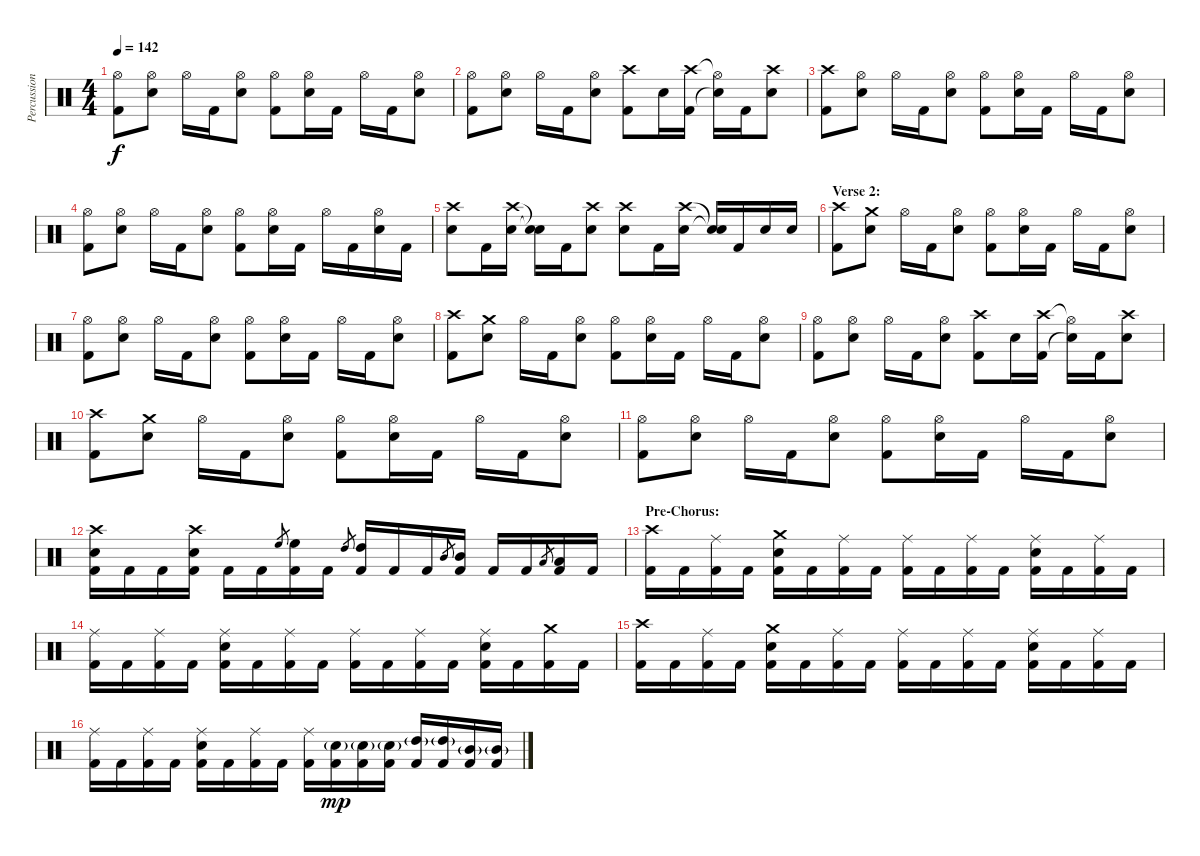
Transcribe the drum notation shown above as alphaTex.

\track ("Percussion" "Percussion") {instrument percussion}
\staff {score}
\articulation defaults
\ts (4 4)
\tempo 142
\clef neutral
\ks c
("Hi-Hat (open)" "Kick (hit) 2").8{dy f} ("Hi-Hat (open)" "Snare (hit) 2").8 "Hi-Hat (open)".16 "Kick (hit) 2".16 ("Hi-Hat (open)" "Snare (hit) 2").8 ("Hi-Hat (open)" "Kick (hit) 2").8 ("Hi-Hat (open)" "Snare (hit) 2").16 "Kick (hit) 2".16 "Hi-Hat (open)".16 "Kick (hit) 2".16 ("Hi-Hat (open)" "Snare (hit) 2").8 |
("Hi-Hat (open)" "Kick (hit) 2").8 ("Hi-Hat (open)" "Snare (hit) 2").8 "Hi-Hat (open)".16 "Kick (hit) 2".16 ("Hi-Hat (open)" "Snare (hit) 2").8 ("Crash high (hit)" "Kick (hit) 2").8 "Snare (hit) 2".16 ("Crash high (hit)" "Kick (hit) 2").16 ("Hi-Hat (open)"{t} "Snare (hit)"{t}).16 "Kick (hit) 2".16 ("Crash high (hit)" "Snare (hit) 2").8 |
("Crash high (hit)" "Kick (hit) 2").8 ("Hi-Hat (open)" "Snare (hit) 2").8 "Hi-Hat (open)".16 "Kick (hit) 2".16 ("Hi-Hat (open)" "Snare (hit) 2").8 ("Hi-Hat (open)" "Kick (hit) 2").8 ("Hi-Hat (open)" "Snare (hit) 2").16 "Kick (hit) 2".16 "Hi-Hat (open)".16 "Kick (hit) 2".16 ("Hi-Hat (open)" "Snare (hit) 2").8 |
("Hi-Hat (open)" "Kick (hit) 2").8 ("Hi-Hat (open)" "Snare (hit) 2").8 "Hi-Hat (open)".16 "Kick (hit) 2".16 ("Hi-Hat (open)" "Snare (hit) 2").8 ("Hi-Hat (open)" "Kick (hit) 2").8 ("Hi-Hat (open)" "Snare (hit) 2").16 "Kick (hit) 2".16 "Hi-Hat (open)".16 "Kick (hit) 2".16 ("Hi-Hat (open)" "Snare (hit) 2").16 "Kick (hit) 2".16 |
("Crash high (hit)" "Snare (hit) 2").8 "Kick (hit) 2".16 ("Crash high (hit)" "Snare (hit) 2").16 ("Snare (hit)"{t} "Snare (hit)"{t}).16 "Kick (hit) 2".16 ("Crash high (hit)" "Snare (hit) 2").8 ("Crash high (hit)" "Snare (hit) 2").8 "Kick (hit) 2".16 ("Crash high (hit)" "Snare (hit) 2").16 ("Snare (hit)"{t} "Snare (hit)"{t}).16 "Kick (hit) 2".16 "Snare (hit) 2".16 "Snare (hit) 2".16 |
\section ("" "Verse 2:")
("Crash high (hit)" "Kick (hit) 2").8 ("Crash medium (hit)" "Snare (hit) 2").8 "Hi-Hat (open)".16 "Kick (hit) 2".16 ("Hi-Hat (open)" "Snare (hit) 2").8 ("Hi-Hat (open)" "Kick (hit) 2").8 ("Hi-Hat (open)" "Snare (hit) 2").16 "Kick (hit) 2".16 "Hi-Hat (open)".16 "Kick (hit) 2".16 ("Hi-Hat (open)" "Snare (hit) 2").8 |
("Hi-Hat (open)" "Kick (hit) 2").8 ("Hi-Hat (open)" "Snare (hit) 2").8 "Hi-Hat (open)".16 "Kick (hit) 2".16 ("Hi-Hat (open)" "Snare (hit) 2").8 ("Hi-Hat (open)" "Kick (hit) 2").8 ("Hi-Hat (open)" "Snare (hit) 2").16 "Kick (hit) 2".16 "Hi-Hat (open)".16 "Kick (hit) 2".16 ("Hi-Hat (open)" "Snare (hit) 2").8 |
("Crash high (hit)" "Kick (hit) 2").8 ("Crash medium (hit)" "Snare (hit) 2").8 "Hi-Hat (open)".16 "Kick (hit) 2".16 ("Hi-Hat (open)" "Snare (hit) 2").8 ("Hi-Hat (open)" "Kick (hit) 2").8 ("Hi-Hat (open)" "Snare (hit) 2").16 "Kick (hit) 2".16 "Hi-Hat (open)".16 "Kick (hit) 2".16 ("Hi-Hat (open)" "Snare (hit) 2").8 |
("Hi-Hat (open)" "Kick (hit) 2").8 ("Hi-Hat (open)" "Snare (hit) 2").8 "Hi-Hat (open)".16 "Kick (hit) 2".16 ("Hi-Hat (open)" "Snare (hit) 2").8 ("Crash high (hit)" "Kick (hit) 2").8 "Snare (hit) 2".16 ("Crash high (hit)" "Kick (hit) 2").16 ("Hi-Hat (open)"{t} "Snare (hit)"{t}).16 "Kick (hit) 2".16 ("Crash high (hit)" "Snare (hit) 2").8 |
("Crash high (hit)" "Kick (hit) 2").8 ("Crash medium (hit)" "Snare (hit) 2").8 "Hi-Hat (open)".16 "Kick (hit) 2".16 ("Hi-Hat (open)" "Snare (hit) 2").8 ("Hi-Hat (open)" "Kick (hit) 2").8 ("Hi-Hat (open)" "Snare (hit) 2").16 "Kick (hit) 2".16 "Hi-Hat (open)".16 "Kick (hit) 2".16 ("Hi-Hat (open)" "Snare (hit) 2").8 |
("Hi-Hat (open)" "Kick (hit) 2").8 ("Hi-Hat (open)" "Snare (hit) 2").8 "Hi-Hat (open)".16 "Kick (hit) 2".16 ("Hi-Hat (open)" "Snare (hit) 2").8 ("Hi-Hat (open)" "Kick (hit) 2").8 ("Hi-Hat (open)" "Snare (hit) 2").16 "Kick (hit) 2".16 "Hi-Hat (open)".16 "Kick (hit) 2".16 ("Hi-Hat (open)" "Snare (hit) 2").8 |
("Crash high (hit)" "Snare (hit) 2" "Kick (hit) 2").16 "Kick (hit) 2".16 "Kick (hit) 2".16 ("Crash high (hit)" "Snare (hit) 2" "Kick (hit) 2").16 "Kick (hit) 2".16 "Kick (hit) 2".16 "High Floor Tom (hit)".8{gr} ("High Floor Tom (hit)" "Kick (hit) 2").16 "Kick (hit) 2".16 "High Tom (hit)".8{gr} ("High Tom (hit)" "Kick (hit) 2").16 "Kick (hit) 2".16 "Kick (hit) 2".16 "Mid Tom (hit)".8{gr} ("Mid Tom (hit)" "Kick (hit) 2").16 "Kick (hit) 2".16 "Kick (hit) 2".16 "Low Tom (hit)".8{gr} ("Low Tom (hit)" "Kick (hit) 2").16 "Kick (hit) 2".16 |
\section ("" "Pre-Chorus:")
("Crash high (hit)" "Kick (hit) 2").16 "Kick (hit) 2".16 ("Ride (middle)" "Kick (hit) 2").16 "Kick (hit) 2".16 ("Crash medium (hit)" "Snare (hit) 2" "Kick (hit) 2").16 "Kick (hit) 2".16 ("Ride (middle)" "Kick (hit) 2").16 "Kick (hit) 2".16 ("Ride (middle)" "Kick (hit) 2").16 "Kick (hit) 2".16 ("Ride (middle)" "Kick (hit) 2").16 "Kick (hit) 2".16 ("Ride (middle)" "Snare (hit) 2" "Kick (hit) 2").16 "Kick (hit) 2".16 ("Ride (middle)" "Kick (hit) 2").16 "Kick (hit) 2".16 |
("Ride (middle)" "Kick (hit) 2").16 "Kick (hit) 2".16 ("Ride (middle)" "Kick (hit) 2").16 "Kick (hit) 2".16 ("Ride (middle)" "Snare (hit) 2" "Kick (hit) 2").16 "Kick (hit) 2".16 ("Ride (middle)" "Kick (hit) 2").16 "Kick (hit) 2".16 ("Ride (middle)" "Kick (hit) 2").16 "Kick (hit) 2".16 ("Ride (middle)" "Kick (hit) 2").16 "Kick (hit) 2".16 ("Ride (middle)" "Snare (hit) 2" "Kick (hit) 2").16 "Kick (hit) 2".16 ("Crash medium (hit)" "Kick (hit) 2").16 "Kick (hit) 2".16 |
("Crash high (hit)" "Kick (hit) 2").16 "Kick (hit) 2".16 ("Ride (middle)" "Kick (hit) 2").16 "Kick (hit) 2".16 ("Crash medium (hit)" "Snare (hit) 2" "Kick (hit) 2").16 "Kick (hit) 2".16 ("Ride (middle)" "Kick (hit) 2").16 "Kick (hit) 2".16 ("Ride (middle)" "Kick (hit) 2").16 "Kick (hit) 2".16 ("Ride (middle)" "Kick (hit) 2").16 "Kick (hit) 2".16 ("Ride (middle)" "Snare (hit) 2" "Kick (hit) 2").16 "Kick (hit) 2".16 ("Ride (middle)" "Kick (hit) 2").16 "Kick (hit) 2".16 |
("Ride (middle)" "Kick (hit) 2").16 "Kick (hit) 2".16 ("Ride (middle)" "Kick (hit) 2").16 "Kick (hit) 2".16 ("Ride (middle)" "Snare (hit) 2" "Kick (hit) 2").16 "Kick (hit) 2".16 ("Ride (middle)" "Kick (hit) 2").16 "Kick (hit) 2".16 ("Ride (middle)" "Kick (hit) 2").16 ("Snare (hit) 2"{g} "Kick (hit) 2").16{dy mp} ("Snare (hit) 2"{g} "Kick (hit) 2").16 ("Snare (hit) 2"{g} "Kick (hit) 2").16 ("High Tom (hit)"{g} "Kick (hit) 2").16 ("High Tom (hit)"{g} "Kick (hit) 2").16 ("Mid Tom (hit)"{g} "Kick (hit) 2").16 ("Mid Tom (hit)"{g} "Kick (hit) 2").16
